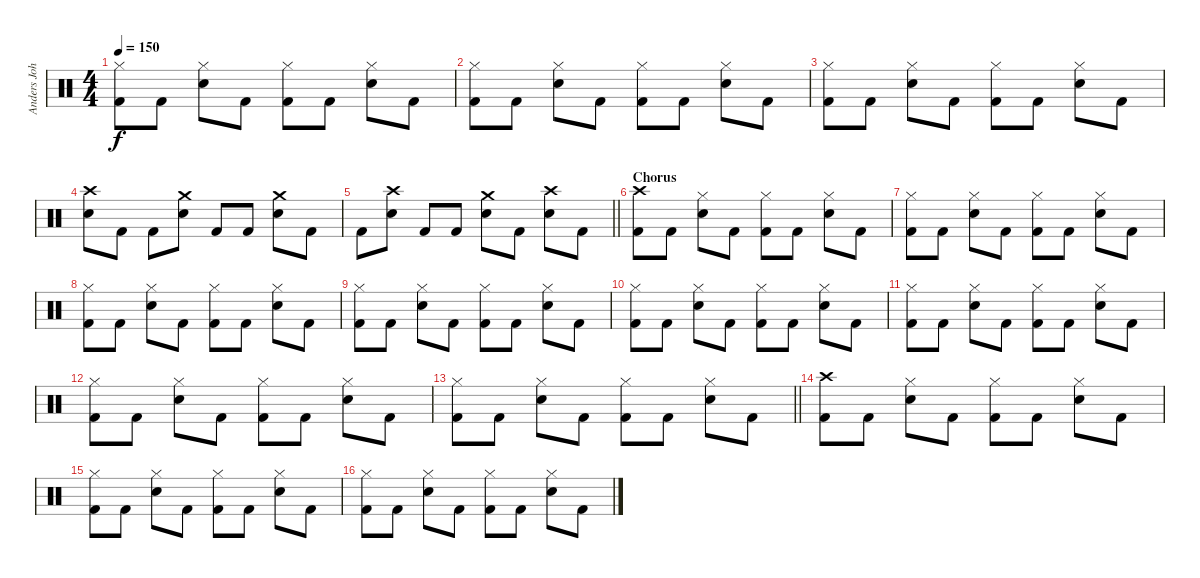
\track ("Anders Johansson" "Anders Joh") {instrument percussion}
\staff {score}
\articulation defaults
\ts (4 4)
\tempo 150
\clef neutral
\ks c
("Hi-Hat (closed)" "Kick (hit) 2").8{dy f} "Kick (hit) 2".8 ("Hi-Hat (closed)" "Snare (hit) 2").8 "Kick (hit) 2".8 ("Hi-Hat (closed)" "Kick (hit) 2").8 "Kick (hit) 2".8 ("Hi-Hat (closed)" "Snare (hit) 2").8 "Kick (hit) 2".8 |
("Hi-Hat (closed)" "Kick (hit) 2").8 "Kick (hit) 2".8 ("Hi-Hat (closed)" "Snare (hit) 2").8 "Kick (hit) 2".8 ("Hi-Hat (closed)" "Kick (hit) 2").8 "Kick (hit) 2".8 ("Hi-Hat (closed)" "Snare (hit) 2").8 "Kick (hit) 2".8 |
("Hi-Hat (closed)" "Kick (hit) 2").8 "Kick (hit) 2".8 ("Hi-Hat (closed)" "Snare (hit) 2").8 "Kick (hit) 2".8 ("Hi-Hat (closed)" "Kick (hit) 2").8 "Kick (hit) 2".8 ("Hi-Hat (closed)" "Snare (hit) 2").8 "Kick (hit) 2".8 |
("Crash high (hit)" "Snare (hit) 2").8 "Kick (hit) 2".8 "Kick (hit) 2".8 ("Crash medium (hit)" "Snare (hit) 2").8 "Kick (hit) 2".8 "Kick (hit) 2".8 ("Crash medium (hit)" "Snare (hit) 2").8 "Kick (hit) 2".8 |
\barLineRight lightlight "Kick (hit) 2".8
("Crash high (hit)" "Snare (hit) 2").8 "Kick (hit) 2".8 "Kick (hit) 2".8 ("Crash medium (hit)" "Snare (hit) 2").8 "Kick (hit) 2".8 ("Crash high (hit)" "Snare (hit) 2").8 "Kick (hit) 2".8 |
\section ("" "Chorus")
("Crash high (hit)" "Kick (hit) 2").8 "Kick (hit) 2".8 ("Hi-Hat (closed)" "Snare (hit) 2").8 "Kick (hit) 2".8 ("Hi-Hat (closed)" "Kick (hit) 2").8 "Kick (hit) 2".8 ("Hi-Hat (closed)" "Snare (hit) 2").8 "Kick (hit) 2".8 |
("Hi-Hat (closed)" "Kick (hit) 2").8 "Kick (hit) 2".8 ("Hi-Hat (closed)" "Snare (hit) 2").8 "Kick (hit) 2".8 ("Hi-Hat (closed)" "Kick (hit) 2").8 "Kick (hit) 2".8 ("Hi-Hat (closed)" "Snare (hit) 2").8 "Kick (hit) 2".8 |
("Hi-Hat (closed)" "Kick (hit) 2").8 "Kick (hit) 2".8 ("Hi-Hat (closed)" "Snare (hit) 2").8 "Kick (hit) 2".8 ("Hi-Hat (closed)" "Kick (hit) 2").8 "Kick (hit) 2".8 ("Hi-Hat (closed)" "Snare (hit) 2").8 "Kick (hit) 2".8 |
("Hi-Hat (closed)" "Kick (hit) 2").8 "Kick (hit) 2".8 ("Hi-Hat (closed)" "Snare (hit) 2").8 "Kick (hit) 2".8 ("Hi-Hat (closed)" "Kick (hit) 2").8 "Kick (hit) 2".8 ("Hi-Hat (closed)" "Snare (hit) 2").8 "Kick (hit) 2".8 |
("Hi-Hat (closed)" "Kick (hit) 2").8 "Kick (hit) 2".8 ("Hi-Hat (closed)" "Snare (hit) 2").8 "Kick (hit) 2".8 ("Hi-Hat (closed)" "Kick (hit) 2").8 "Kick (hit) 2".8 ("Hi-Hat (closed)" "Snare (hit) 2").8 "Kick (hit) 2".8 |
("Hi-Hat (closed)" "Kick (hit) 2").8 "Kick (hit) 2".8 ("Hi-Hat (closed)" "Snare (hit) 2").8 "Kick (hit) 2".8 ("Hi-Hat (closed)" "Kick (hit) 2").8 "Kick (hit) 2".8 ("Hi-Hat (closed)" "Snare (hit) 2").8 "Kick (hit) 2".8 |
("Hi-Hat (closed)" "Kick (hit) 2").8 "Kick (hit) 2".8 ("Hi-Hat (closed)" "Snare (hit) 2").8 "Kick (hit) 2".8 ("Hi-Hat (closed)" "Kick (hit) 2").8 "Kick (hit) 2".8 ("Hi-Hat (closed)" "Snare (hit) 2").8 "Kick (hit) 2".8 |
\barLineRight lightlight
("Hi-Hat (closed)" "Kick (hit) 2").8 "Kick (hit) 2".8 ("Hi-Hat (closed)" "Snare (hit) 2").8 "Kick (hit) 2".8 ("Hi-Hat (closed)" "Kick (hit) 2").8 "Kick (hit) 2".8 ("Hi-Hat (closed)" "Snare (hit) 2").8 "Kick (hit) 2".8 |
("Crash high (hit)" "Kick (hit) 2").8 "Kick (hit) 2".8 ("Hi-Hat (closed)" "Snare (hit) 2").8 "Kick (hit) 2".8 ("Hi-Hat (closed)" "Kick (hit) 2").8 "Kick (hit) 2".8 ("Hi-Hat (closed)" "Snare (hit) 2").8 "Kick (hit) 2".8 |
("Hi-Hat (closed)" "Kick (hit) 2").8 "Kick (hit) 2".8 ("Hi-Hat (closed)" "Snare (hit) 2").8 "Kick (hit) 2".8 ("Hi-Hat (closed)" "Kick (hit) 2").8 "Kick (hit) 2".8 ("Hi-Hat (closed)" "Snare (hit) 2").8 "Kick (hit) 2".8 |
("Hi-Hat (closed)" "Kick (hit) 2").8 "Kick (hit) 2".8 ("Hi-Hat (closed)" "Snare (hit) 2").8 "Kick (hit) 2".8 ("Hi-Hat (closed)" "Kick (hit) 2").8 "Kick (hit) 2".8 ("Hi-Hat (closed)" "Snare (hit) 2").8 "Kick (hit) 2".8
